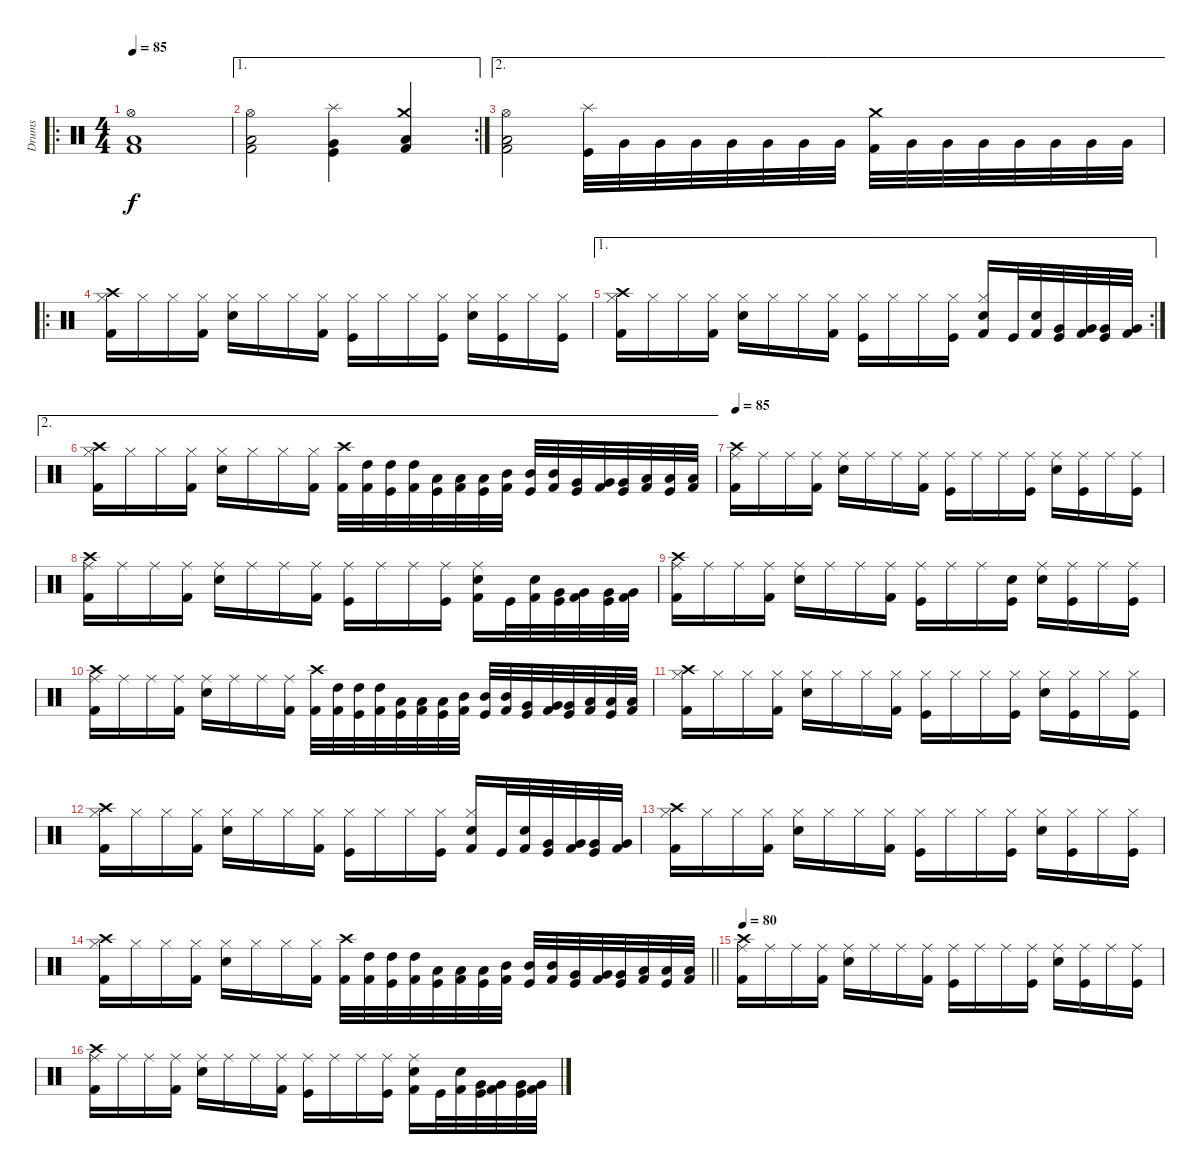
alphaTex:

\track ("Drums" "Drums") {instrument percussion}
\staff {score}
\articulation defaults
\ro
\ts (4 4)
\tempo 85
\clef neutral
\ks c
("Hi-Hat (open)" "Low Tom (hit)" "Kick (hit) 2").1{dy f} |
\ae 1
\rc 2
("Hi-Hat (open)" "Low Tom (hit)" "Kick (hit) 2").2 ("Splash (hit)" "Very Low Tom (hit)" "Kick (hit)").4 ("Crash medium (hit)" "Low Floor Tom (hit)" "Kick (hit) 2").4 |
\ae 2
("Hi-Hat (open)" "Low Tom (hit)" "Kick (hit) 2").2 ("Splash (hit)" "Kick (hit)").32 "Very Low Tom (hit)".32 "Very Low Tom (hit)".32 "Very Low Tom (hit)".32 "Very Low Tom (hit)".32 "Very Low Tom (hit)".32 "Very Low Tom (hit)".32 "Very Low Tom (hit)".32 ("Crash medium (hit)" "Kick (hit) 2").32 "Very Low Tom (hit)".32 "Very Low Tom (hit)".32 "Very Low Tom (hit)".32 "Very Low Tom (hit)".32 "Very Low Tom (hit)".32 "Very Low Tom (hit)".32 "Very Low Tom (hit)".32 |
\ro
("Crash high (hit)" "Hi-Hat (closed)" "Kick (hit) 2").16 "Hi-Hat (closed)".16 "Hi-Hat (closed)".16 ("Hi-Hat (closed)" "Kick (hit) 2").16 ("Hi-Hat (closed)" "Snare (hit) 2").16 "Hi-Hat (closed)".16 "Hi-Hat (closed)".16 ("Hi-Hat (closed)" "Kick (hit) 2").16 ("Hi-Hat (closed)" "Kick (hit)").16 "Hi-Hat (closed)".16 "Hi-Hat (closed)".16 ("Hi-Hat (closed)" "Kick (hit)").16 ("Hi-Hat (closed)" "Snare (hit) 2").16 ("Hi-Hat (closed)" "Kick (hit)").16 "Hi-Hat (closed)".16 ("Hi-Hat (closed)" "Kick (hit)").16 |
\ae 1
\rc 2
("Crash high (hit)" "Hi-Hat (closed)" "Kick (hit) 2").16 "Hi-Hat (closed)".16 "Hi-Hat (closed)".16 ("Hi-Hat (closed)" "Kick (hit) 2").16 ("Hi-Hat (closed)" "Snare (hit) 2").16 "Hi-Hat (closed)".16 "Hi-Hat (closed)".16 ("Hi-Hat (closed)" "Kick (hit) 2").16 ("Hi-Hat (closed)" "Kick (hit)").16 "Hi-Hat (closed)".16 "Hi-Hat (closed)".16 ("Hi-Hat (closed)" "Kick (hit)").16 ("Hi-Hat (closed)" "Snare (hit) 2" "Kick (hit) 2").16 "Kick (hit)".32 ("Snare (hit) 2" "Kick (hit) 2").32 ("Very Low Tom (hit)" "Kick (hit)").32 ("Very Low Tom (hit)" "Kick (hit) 2").32 ("Very Low Tom (hit)" "Kick (hit)").32 ("Very Low Tom (hit)" "Kick (hit) 2").32 |
\ae 2
("Crash high (hit)" "Hi-Hat (closed)" "Kick (hit) 2").16 "Hi-Hat (closed)".16 "Hi-Hat (closed)".16 ("Hi-Hat (closed)" "Kick (hit) 2").16 ("Hi-Hat (closed)" "Snare (hit) 2").16 "Hi-Hat (closed)".16 "Hi-Hat (closed)".16 ("Hi-Hat (closed)" "Kick (hit) 2").16 ("Crash high (hit)" "Kick (hit) 2").32 ("High Tom (hit)" "Kick (hit) 2").32 ("High Tom (hit)" "Kick (hit)").32 ("High Tom (hit)" "Kick (hit) 2").32 ("Low Tom (hit)" "Kick (hit)").32 ("Low Tom (hit)" "Kick (hit) 2").32 ("Low Tom (hit)" "Kick (hit)").32 ("Mid Tom (hit)" "Kick (hit) 2").32 ("Mid Tom (hit)" "Kick (hit)").32 ("Mid Tom (hit)" "Kick (hit) 2").32 ("Very Low Tom (hit)" "Kick (hit)").32 ("Very Low Tom (hit)" "Kick (hit) 2").32 ("Very Low Tom (hit)" "Kick (hit)").32 ("Low Floor Tom (hit)" "Kick (hit) 2").32 ("Low Floor Tom (hit)" "Kick (hit)").32 ("Low Floor Tom (hit)" "Kick (hit) 2").32 |
\tempo 85
("Crash high (hit)" "Ride (middle)" "Kick (hit) 2").16 "Ride (middle)".16 "Ride (middle)".16 ("Ride (middle)" "Kick (hit) 2").16 ("Ride (middle)" "Snare (hit) 2").16 "Ride (middle)".16 "Ride (middle)".16 ("Ride (middle)" "Kick (hit) 2").16 ("Ride (middle)" "Kick (hit)").16 "Ride (middle)".16 "Ride (middle)".16 ("Ride (middle)" "Kick (hit)").16 ("Ride (middle)" "Snare (hit) 2").16 ("Ride (middle)" "Kick (hit)").16 "Ride (middle)".16 ("Ride (middle)" "Kick (hit)").16 |
("Crash high (hit)" "Ride (middle)" "Kick (hit) 2").16 "Ride (middle)".16 "Ride (middle)".16 ("Ride (middle)" "Kick (hit) 2").16 ("Ride (middle)" "Snare (hit) 2").16 "Ride (middle)".16 "Ride (middle)".16 ("Ride (middle)" "Kick (hit) 2").16 ("Ride (middle)" "Kick (hit)").16 "Ride (middle)".16 "Ride (middle)".16 ("Ride (middle)" "Kick (hit)").16 ("Ride (middle)" "Snare (hit) 2" "Kick (hit) 2").16 "Kick (hit)".32 ("Snare (hit) 2" "Kick (hit) 2").32 ("Very Low Tom (hit)" "Kick (hit)").32 ("Very Low Tom (hit)" "Kick (hit) 2").32 ("Very Low Tom (hit)" "Kick (hit)").32 ("Very Low Tom (hit)" "Kick (hit) 2").32 |
("Crash high (hit)" "Ride (middle)" "Kick (hit) 2").16 "Ride (middle)".16 "Ride (middle)".16 ("Ride (middle)" "Kick (hit) 2").16 ("Ride (middle)" "Snare (hit) 2").16 "Ride (middle)".16 "Ride (middle)".16 ("Ride (middle)" "Kick (hit) 2").16 ("Ride (middle)" "Kick (hit)").16 "Ride (middle)".16 "Ride (middle)".16 ("Snare (hit)" "Kick (hit)").16 ("Ride (middle)" "Snare (hit) 2").16 ("Ride (middle)" "Kick (hit)").16 "Ride (middle)".16 ("Ride (middle)" "Kick (hit)").16 |
("Crash high (hit)" "Ride (middle)" "Kick (hit) 2").16 "Ride (middle)".16 "Ride (middle)".16 ("Ride (middle)" "Kick (hit) 2").16 ("Ride (middle)" "Snare (hit) 2").16 "Ride (middle)".16 "Ride (middle)".16 ("Ride (middle)" "Kick (hit) 2").16 ("Crash high (hit)" "Kick (hit) 2").32 ("High Tom (hit)" "Kick (hit) 2").32 ("High Tom (hit)" "Kick (hit)").32 ("High Tom (hit)" "Kick (hit) 2").32 ("Low Tom (hit)" "Kick (hit)").32 ("Low Tom (hit)" "Kick (hit) 2").32 ("Low Tom (hit)" "Kick (hit)").32 ("Mid Tom (hit)" "Kick (hit) 2").32 ("Mid Tom (hit)" "Kick (hit)").32 ("Mid Tom (hit)" "Kick (hit) 2").32 ("Very Low Tom (hit)" "Kick (hit)").32 ("Very Low Tom (hit)" "Kick (hit) 2").32 ("Very Low Tom (hit)" "Kick (hit)").32 ("Low Floor Tom (hit)" "Kick (hit) 2").32 ("Low Floor Tom (hit)" "Kick (hit)").32 ("Low Floor Tom (hit)" "Kick (hit) 2").32 |
("Crash high (hit)" "Hi-Hat (closed)" "Kick (hit) 2").16 "Hi-Hat (closed)".16 "Hi-Hat (closed)".16 ("Hi-Hat (closed)" "Kick (hit) 2").16 ("Hi-Hat (closed)" "Snare (hit) 2").16 "Hi-Hat (closed)".16 "Hi-Hat (closed)".16 ("Hi-Hat (closed)" "Kick (hit) 2").16 ("Hi-Hat (closed)" "Kick (hit)").16 "Hi-Hat (closed)".16 "Hi-Hat (closed)".16 ("Hi-Hat (closed)" "Kick (hit)").16 ("Hi-Hat (closed)" "Snare (hit) 2").16 ("Hi-Hat (closed)" "Kick (hit)").16 "Hi-Hat (closed)".16 ("Hi-Hat (closed)" "Kick (hit)").16 |
("Crash high (hit)" "Hi-Hat (closed)" "Kick (hit) 2").16 "Hi-Hat (closed)".16 "Hi-Hat (closed)".16 ("Hi-Hat (closed)" "Kick (hit) 2").16 ("Hi-Hat (closed)" "Snare (hit) 2").16 "Hi-Hat (closed)".16 "Hi-Hat (closed)".16 ("Hi-Hat (closed)" "Kick (hit) 2").16 ("Hi-Hat (closed)" "Kick (hit)").16 "Hi-Hat (closed)".16 "Hi-Hat (closed)".16 ("Hi-Hat (closed)" "Kick (hit)").16 ("Hi-Hat (closed)" "Snare (hit) 2" "Kick (hit) 2").16 "Kick (hit)".32 ("Snare (hit) 2" "Kick (hit) 2").32 ("Very Low Tom (hit)" "Kick (hit)").32 ("Very Low Tom (hit)" "Kick (hit) 2").32 ("Very Low Tom (hit)" "Kick (hit)").32 ("Very Low Tom (hit)" "Kick (hit) 2").32 |
("Crash high (hit)" "Hi-Hat (closed)" "Kick (hit) 2").16 "Hi-Hat (closed)".16 "Hi-Hat (closed)".16 ("Hi-Hat (closed)" "Kick (hit) 2").16 ("Hi-Hat (closed)" "Snare (hit) 2").16 "Hi-Hat (closed)".16 "Hi-Hat (closed)".16 ("Hi-Hat (closed)" "Kick (hit) 2").16 ("Hi-Hat (closed)" "Kick (hit)").16 "Hi-Hat (closed)".16 "Hi-Hat (closed)".16 ("Hi-Hat (closed)" "Kick (hit)").16 ("Hi-Hat (closed)" "Snare (hit) 2").16 ("Hi-Hat (closed)" "Kick (hit)").16 "Hi-Hat (closed)".16 ("Hi-Hat (closed)" "Kick (hit)").16 |
\barLineRight lightlight
("Crash high (hit)" "Hi-Hat (closed)" "Kick (hit) 2").16 "Hi-Hat (closed)".16 "Hi-Hat (closed)".16 ("Hi-Hat (closed)" "Kick (hit) 2").16 ("Hi-Hat (closed)" "Snare (hit) 2").16 "Hi-Hat (closed)".16 "Hi-Hat (closed)".16 ("Hi-Hat (closed)" "Kick (hit) 2").16 ("Crash high (hit)" "Kick (hit) 2").32 ("High Tom (hit)" "Kick (hit) 2").32 ("High Tom (hit)" "Kick (hit)").32 ("High Tom (hit)" "Kick (hit) 2").32 ("Low Tom (hit)" "Kick (hit)").32 ("Low Tom (hit)" "Kick (hit) 2").32 ("Low Tom (hit)" "Kick (hit)").32 ("Mid Tom (hit)" "Kick (hit) 2").32 ("Mid Tom (hit)" "Kick (hit)").32 ("Mid Tom (hit)" "Kick (hit) 2").32 ("Very Low Tom (hit)" "Kick (hit)").32 ("Very Low Tom (hit)" "Kick (hit) 2").32 ("Very Low Tom (hit)" "Kick (hit)").32 ("Low Floor Tom (hit)" "Kick (hit) 2").32 ("Low Floor Tom (hit)" "Kick (hit)").32 ("Low Floor Tom (hit)" "Kick (hit) 2").32 |
\tempo 80
("Crash high (hit)" "Ride (middle)" "Kick (hit) 2").16 "Ride (middle)".16 "Ride (middle)".16 ("Ride (middle)" "Kick (hit) 2").16 ("Ride (middle)" "Snare (hit) 2").16 "Ride (middle)".16 "Ride (middle)".16 ("Ride (middle)" "Kick (hit) 2").16 ("Ride (middle)" "Kick (hit)").16 "Ride (middle)".16 "Ride (middle)".16 ("Ride (middle)" "Kick (hit)").16 ("Ride (middle)" "Snare (hit) 2").16 ("Ride (middle)" "Kick (hit)").16 "Ride (middle)".16 ("Ride (middle)" "Kick (hit)").16 |
("Crash high (hit)" "Ride (middle)" "Kick (hit) 2").16 "Ride (middle)".16 "Ride (middle)".16 ("Ride (middle)" "Kick (hit) 2").16 ("Ride (middle)" "Snare (hit) 2").16 "Ride (middle)".16 "Ride (middle)".16 ("Ride (middle)" "Kick (hit) 2").16 ("Ride (middle)" "Kick (hit)").16 "Ride (middle)".16 "Ride (middle)".16 ("Ride (middle)" "Kick (hit)").16 ("Ride (middle)" "Snare (hit) 2" "Kick (hit) 2").16 "Kick (hit)".32 ("Snare (hit) 2" "Kick (hit) 2").32 ("Very Low Tom (hit)" "Kick (hit)").32 ("Very Low Tom (hit)" "Kick (hit) 2").32 ("Very Low Tom (hit)" "Kick (hit)").32 ("Very Low Tom (hit)" "Kick (hit) 2").32
